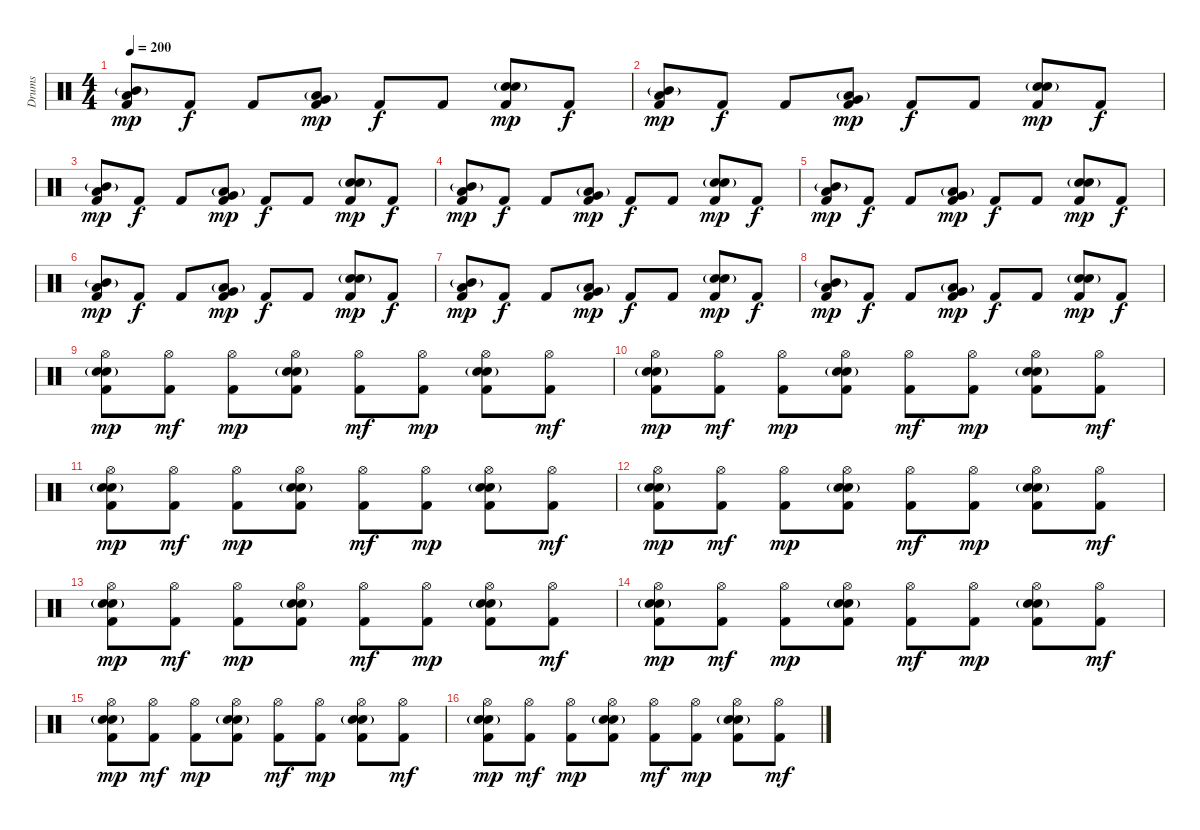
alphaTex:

\track ("Drums" "Drums") {instrument percussion}
\staff {score}
\articulation defaults
\ts (4 4)
\tempo 200
\clef neutral
\ks c
("Mid Tom (hit)"{g} "Low Tom (hit)" "Kick (hit) 2").8{dy mp} "Kick (hit) 2".8{dy f} "Kick (hit) 2".8 ("Low Tom (hit)"{g} "Very Low Tom (hit)" "Kick (hit) 2").8{dy mp} "Kick (hit) 2".8{dy f} "Kick (hit) 2".8 ("Electric Snare (hit)"{g} "Snare (hit) 2" "Kick (hit) 2").8{dy mp} "Kick (hit) 2".8{dy f} |
("Mid Tom (hit)"{g} "Low Tom (hit)" "Kick (hit) 2").8{dy mp} "Kick (hit) 2".8{dy f} "Kick (hit) 2".8 ("Low Tom (hit)"{g} "Very Low Tom (hit)" "Kick (hit) 2").8{dy mp} "Kick (hit) 2".8{dy f} "Kick (hit) 2".8 ("Electric Snare (hit)"{g} "Snare (hit) 2" "Kick (hit) 2").8{dy mp} "Kick (hit) 2".8{dy f} |
("Mid Tom (hit)"{g} "Low Tom (hit)" "Kick (hit) 2").8{dy mp} "Kick (hit) 2".8{dy f} "Kick (hit) 2".8 ("Low Tom (hit)"{g} "Very Low Tom (hit)" "Kick (hit) 2").8{dy mp} "Kick (hit) 2".8{dy f} "Kick (hit) 2".8 ("Electric Snare (hit)"{g} "Snare (hit) 2" "Kick (hit) 2").8{dy mp} "Kick (hit) 2".8{dy f} |
("Mid Tom (hit)"{g} "Low Tom (hit)" "Kick (hit) 2").8{dy mp} "Kick (hit) 2".8{dy f} "Kick (hit) 2".8 ("Low Tom (hit)"{g} "Very Low Tom (hit)" "Kick (hit) 2").8{dy mp} "Kick (hit) 2".8{dy f} "Kick (hit) 2".8 ("Electric Snare (hit)"{g} "Snare (hit) 2" "Kick (hit) 2").8{dy mp} "Kick (hit) 2".8{dy f} |
("Mid Tom (hit)"{g} "Low Tom (hit)" "Kick (hit) 2").8{dy mp} "Kick (hit) 2".8{dy f} "Kick (hit) 2".8 ("Low Tom (hit)"{g} "Very Low Tom (hit)" "Kick (hit) 2").8{dy mp} "Kick (hit) 2".8{dy f} "Kick (hit) 2".8 ("Electric Snare (hit)"{g} "Snare (hit) 2" "Kick (hit) 2").8{dy mp} "Kick (hit) 2".8{dy f} |
("Mid Tom (hit)"{g} "Low Tom (hit)" "Kick (hit) 2").8{dy mp} "Kick (hit) 2".8{dy f} "Kick (hit) 2".8 ("Low Tom (hit)"{g} "Very Low Tom (hit)" "Kick (hit) 2").8{dy mp} "Kick (hit) 2".8{dy f} "Kick (hit) 2".8 ("Electric Snare (hit)"{g} "Snare (hit) 2" "Kick (hit) 2").8{dy mp} "Kick (hit) 2".8{dy f} |
("Mid Tom (hit)"{g} "Low Tom (hit)" "Kick (hit) 2").8{dy mp} "Kick (hit) 2".8{dy f} "Kick (hit) 2".8 ("Low Tom (hit)"{g} "Very Low Tom (hit)" "Kick (hit) 2").8{dy mp} "Kick (hit) 2".8{dy f} "Kick (hit) 2".8 ("Electric Snare (hit)"{g} "Snare (hit) 2" "Kick (hit) 2").8{dy mp} "Kick (hit) 2".8{dy f} |
("Mid Tom (hit)"{g} "Low Tom (hit)" "Kick (hit) 2").8{dy mp} "Kick (hit) 2".8{dy f} "Kick (hit) 2".8 ("Low Tom (hit)"{g} "Very Low Tom (hit)" "Kick (hit) 2").8{dy mp} "Kick (hit) 2".8{dy f} "Kick (hit) 2".8 ("Electric Snare (hit)"{g} "Snare (hit) 2" "Kick (hit) 2").8{dy mp} "Kick (hit) 2".8{dy f} |
("Hi-Hat (open)" "Electric Snare (hit)"{g} "Snare (hit) 2" "Kick (hit) 2").8{dy mp} ("Hi-Hat (open)" "Kick (hit) 2").8{dy mf} ("Hi-Hat (open)" "Kick (hit) 2").8{dy mp} ("Hi-Hat (open)" "Electric Snare (hit)"{g} "Snare (hit) 2" "Kick (hit) 2").8 ("Hi-Hat (open)" "Kick (hit) 2").8{dy mf} ("Hi-Hat (open)" "Kick (hit) 2").8{dy mp} ("Hi-Hat (open)" "Electric Snare (hit)"{g} "Snare (hit) 2" "Kick (hit) 2").8 ("Hi-Hat (open)" "Kick (hit) 2").8{dy mf} |
("Hi-Hat (open)" "Electric Snare (hit)"{g} "Snare (hit) 2" "Kick (hit) 2").8{dy mp} ("Hi-Hat (open)" "Kick (hit) 2").8{dy mf} ("Hi-Hat (open)" "Kick (hit) 2").8{dy mp} ("Hi-Hat (open)" "Electric Snare (hit)"{g} "Snare (hit) 2" "Kick (hit) 2").8 ("Hi-Hat (open)" "Kick (hit) 2").8{dy mf} ("Hi-Hat (open)" "Kick (hit) 2").8{dy mp} ("Hi-Hat (open)" "Electric Snare (hit)"{g} "Snare (hit) 2" "Kick (hit) 2").8 ("Hi-Hat (open)" "Kick (hit) 2").8{dy mf} |
("Hi-Hat (open)" "Electric Snare (hit)"{g} "Snare (hit) 2" "Kick (hit) 2").8{dy mp} ("Hi-Hat (open)" "Kick (hit) 2").8{dy mf} ("Hi-Hat (open)" "Kick (hit) 2").8{dy mp} ("Hi-Hat (open)" "Electric Snare (hit)"{g} "Snare (hit) 2" "Kick (hit) 2").8 ("Hi-Hat (open)" "Kick (hit) 2").8{dy mf} ("Hi-Hat (open)" "Kick (hit) 2").8{dy mp} ("Hi-Hat (open)" "Electric Snare (hit)"{g} "Snare (hit) 2" "Kick (hit) 2").8 ("Hi-Hat (open)" "Kick (hit) 2").8{dy mf} |
("Hi-Hat (open)" "Electric Snare (hit)"{g} "Snare (hit) 2" "Kick (hit) 2").8{dy mp} ("Hi-Hat (open)" "Kick (hit) 2").8{dy mf} ("Hi-Hat (open)" "Kick (hit) 2").8{dy mp} ("Hi-Hat (open)" "Electric Snare (hit)"{g} "Snare (hit) 2" "Kick (hit) 2").8 ("Hi-Hat (open)" "Kick (hit) 2").8{dy mf} ("Hi-Hat (open)" "Kick (hit) 2").8{dy mp} ("Hi-Hat (open)" "Electric Snare (hit)"{g} "Snare (hit) 2" "Kick (hit) 2").8 ("Hi-Hat (open)" "Kick (hit) 2").8{dy mf} |
("Hi-Hat (open)" "Electric Snare (hit)"{g} "Snare (hit) 2" "Kick (hit) 2").8{dy mp} ("Hi-Hat (open)" "Kick (hit) 2").8{dy mf} ("Hi-Hat (open)" "Kick (hit) 2").8{dy mp} ("Hi-Hat (open)" "Electric Snare (hit)"{g} "Snare (hit) 2" "Kick (hit) 2").8 ("Hi-Hat (open)" "Kick (hit) 2").8{dy mf} ("Hi-Hat (open)" "Kick (hit) 2").8{dy mp} ("Hi-Hat (open)" "Electric Snare (hit)"{g} "Snare (hit) 2" "Kick (hit) 2").8 ("Hi-Hat (open)" "Kick (hit) 2").8{dy mf} |
("Hi-Hat (open)" "Electric Snare (hit)"{g} "Snare (hit) 2" "Kick (hit) 2").8{dy mp} ("Hi-Hat (open)" "Kick (hit) 2").8{dy mf} ("Hi-Hat (open)" "Kick (hit) 2").8{dy mp} ("Hi-Hat (open)" "Electric Snare (hit)"{g} "Snare (hit) 2" "Kick (hit) 2").8 ("Hi-Hat (open)" "Kick (hit) 2").8{dy mf} ("Hi-Hat (open)" "Kick (hit) 2").8{dy mp} ("Hi-Hat (open)" "Electric Snare (hit)"{g} "Snare (hit) 2" "Kick (hit) 2").8 ("Hi-Hat (open)" "Kick (hit) 2").8{dy mf} |
("Hi-Hat (open)" "Electric Snare (hit)"{g} "Snare (hit) 2" "Kick (hit) 2").8{dy mp} ("Hi-Hat (open)" "Kick (hit) 2").8{dy mf} ("Hi-Hat (open)" "Kick (hit) 2").8{dy mp} ("Hi-Hat (open)" "Electric Snare (hit)"{g} "Snare (hit) 2" "Kick (hit) 2").8 ("Hi-Hat (open)" "Kick (hit) 2").8{dy mf} ("Hi-Hat (open)" "Kick (hit) 2").8{dy mp} ("Hi-Hat (open)" "Electric Snare (hit)"{g} "Snare (hit) 2" "Kick (hit) 2").8 ("Hi-Hat (open)" "Kick (hit) 2").8{dy mf} |
("Hi-Hat (open)" "Electric Snare (hit)"{g} "Snare (hit) 2" "Kick (hit) 2").8{dy mp} ("Hi-Hat (open)" "Kick (hit) 2").8{dy mf} ("Hi-Hat (open)" "Kick (hit) 2").8{dy mp} ("Hi-Hat (open)" "Electric Snare (hit)"{g} "Snare (hit) 2" "Kick (hit) 2").8 ("Hi-Hat (open)" "Kick (hit) 2").8{dy mf} ("Hi-Hat (open)" "Kick (hit) 2").8{dy mp} ("Hi-Hat (open)" "Electric Snare (hit)"{g} "Snare (hit) 2" "Kick (hit) 2").8 ("Hi-Hat (open)" "Kick (hit) 2").8{dy mf}
